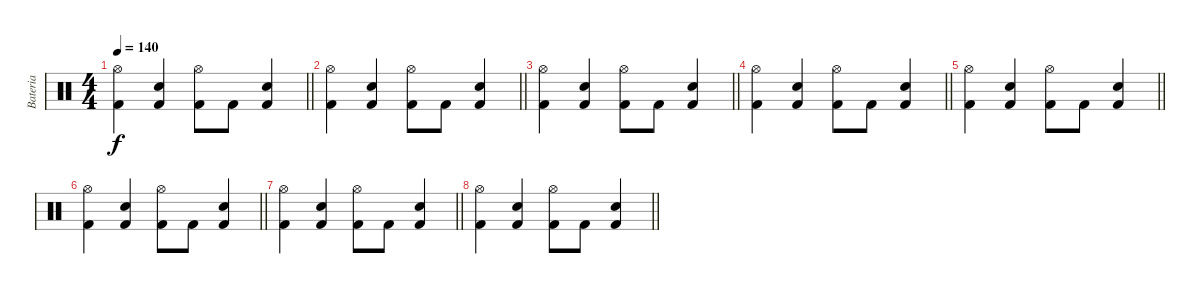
\track ("Bateria" "Bateria") {instrument percussion}
\staff {score}
\articulation defaults
\ts (4 4)
\tempo 140
\clef neutral
\barLineRight lightlight
\ks c
("Kick (hit) 2" "Hi-Hat (open)").4{dy f} ("Kick (hit) 2" "Electric Snare (hit)").4 ("Kick (hit) 2" "Hi-Hat (open)").8 "Kick (hit) 2".8 ("Kick (hit) 2" "Electric Snare (hit)").4 |
\barLineRight lightlight
("Kick (hit) 2" "Hi-Hat (open)").4 ("Kick (hit) 2" "Electric Snare (hit)").4 ("Kick (hit) 2" "Hi-Hat (open)").8 "Kick (hit) 2".8 ("Kick (hit) 2" "Electric Snare (hit)").4 |
\barLineRight lightlight
("Kick (hit) 2" "Hi-Hat (open)").4 ("Kick (hit) 2" "Electric Snare (hit)").4 ("Kick (hit) 2" "Hi-Hat (open)").8 "Kick (hit) 2".8 ("Kick (hit) 2" "Electric Snare (hit)").4 |
\barLineRight lightlight
("Kick (hit) 2" "Hi-Hat (open)").4 ("Kick (hit) 2" "Electric Snare (hit)").4 ("Kick (hit) 2" "Hi-Hat (open)").8 "Kick (hit) 2".8 ("Kick (hit) 2" "Electric Snare (hit)").4 |
\barLineRight lightlight
("Kick (hit) 2" "Hi-Hat (open)").4 ("Kick (hit) 2" "Electric Snare (hit)").4 ("Kick (hit) 2" "Hi-Hat (open)").8 "Kick (hit) 2".8 ("Kick (hit) 2" "Electric Snare (hit)").4 |
\barLineRight lightlight
("Kick (hit) 2" "Hi-Hat (open)").4 ("Kick (hit) 2" "Electric Snare (hit)").4 ("Kick (hit) 2" "Hi-Hat (open)").8 "Kick (hit) 2".8 ("Kick (hit) 2" "Electric Snare (hit)").4 |
\barLineRight lightlight
("Kick (hit) 2" "Hi-Hat (open)").4 ("Kick (hit) 2" "Electric Snare (hit)").4 ("Kick (hit) 2" "Hi-Hat (open)").8 "Kick (hit) 2".8 ("Kick (hit) 2" "Electric Snare (hit)").4 |
\barLineRight lightlight
("Kick (hit) 2" "Hi-Hat (open)").4 ("Kick (hit) 2" "Electric Snare (hit)").4 ("Kick (hit) 2" "Hi-Hat (open)").8 "Kick (hit) 2".8 ("Kick (hit) 2" "Electric Snare (hit)").4
